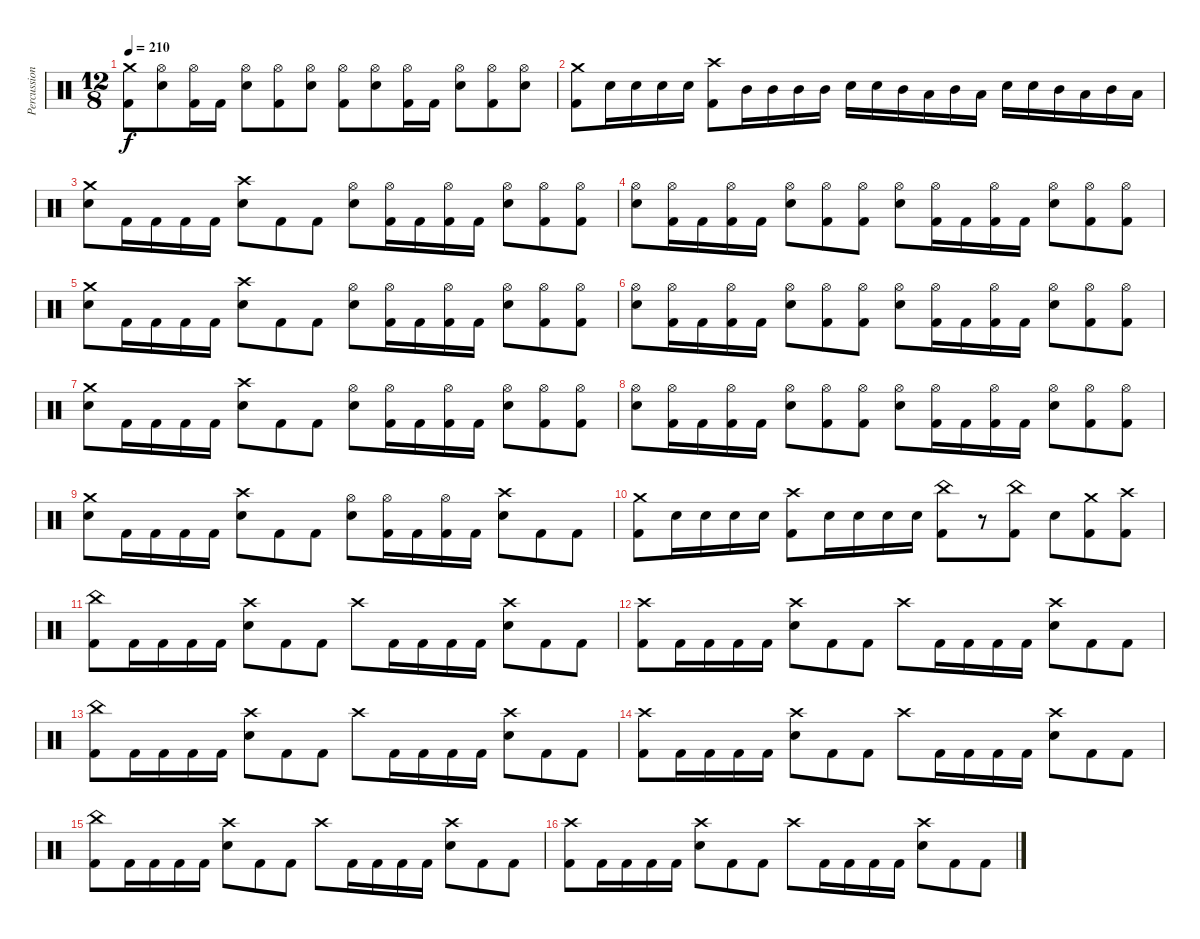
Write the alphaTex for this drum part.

\track ("Percussion" "Percussion") {instrument percussion}
\staff {score}
\articulation defaults
\ts (12 8)
\tempo 210
\clef neutral
\ks c
("Crash medium (hit)" "Kick (hit) 2").8{dy f} ("Hi-Hat (open)" "Electric Snare (hit)").8 ("Hi-Hat (open)" "Kick (hit) 2").16 "Kick (hit) 2".16 ("Hi-Hat (open)" "Electric Snare (hit)").8 ("Hi-Hat (open)" "Kick (hit) 2").8 ("Hi-Hat (open)" "Electric Snare (hit)").8 ("Hi-Hat (open)" "Kick (hit) 2").8 ("Hi-Hat (open)" "Electric Snare (hit)").8 ("Hi-Hat (open)" "Kick (hit) 2").16 "Kick (hit) 2".16 ("Hi-Hat (open)" "Electric Snare (hit)").8 ("Hi-Hat (open)" "Kick (hit) 2").8 ("Hi-Hat (open)" "Electric Snare (hit)").8 |
("Crash medium (hit)" "Kick (hit) 2").8 "Electric Snare (hit)".16 "Electric Snare (hit)".16 "Electric Snare (hit)".16 "Electric Snare (hit)".16 ("Crash high (hit)" "Kick (hit) 2").8 "Mid Tom (hit)".16 "Mid Tom (hit)".16 "Mid Tom (hit)".16 "Mid Tom (hit)".16 "Electric Snare (hit)".16 "Electric Snare (hit)".16 "Mid Tom (hit)".16 "Low Tom (hit)".16 "Mid Tom (hit)".16 "Low Tom (hit)".16 "Electric Snare (hit)".16 "Electric Snare (hit)".16 "Mid Tom (hit)".16 "Low Tom (hit)".16 "Mid Tom (hit)".16 "Low Tom (hit)".16 |
("Crash medium (hit)" "Electric Snare (hit)").8 "Kick (hit) 2".16 "Kick (hit) 2".16 "Kick (hit) 2".16 "Kick (hit) 2".16 ("Crash high (hit)" "Electric Snare (hit)").8 "Kick (hit) 2".8 "Kick (hit) 2".8 ("Hi-Hat (open)" "Electric Snare (hit)").8 ("Hi-Hat (open)" "Kick (hit) 2").16 "Kick (hit) 2".16 ("Hi-Hat (open)" "Kick (hit) 2").16 "Kick (hit) 2".16 ("Hi-Hat (open)" "Electric Snare (hit)").8 ("Hi-Hat (open)" "Kick (hit) 2").8 ("Hi-Hat (open)" "Kick (hit) 2").8 |
("Hi-Hat (open)" "Electric Snare (hit)").8 ("Hi-Hat (open)" "Kick (hit) 2").16 "Kick (hit) 2".16 ("Hi-Hat (open)" "Kick (hit) 2").16 "Kick (hit) 2".16 ("Hi-Hat (open)" "Electric Snare (hit)").8 ("Hi-Hat (open)" "Kick (hit) 2").8 ("Hi-Hat (open)" "Kick (hit) 2").8 ("Hi-Hat (open)" "Electric Snare (hit)").8 ("Hi-Hat (open)" "Kick (hit) 2").16 "Kick (hit) 2".16 ("Hi-Hat (open)" "Kick (hit) 2").16 "Kick (hit) 2".16 ("Hi-Hat (open)" "Electric Snare (hit)").8 ("Hi-Hat (open)" "Kick (hit) 2").8 ("Hi-Hat (open)" "Kick (hit) 2").8 |
("Crash medium (hit)" "Electric Snare (hit)").8 "Kick (hit) 2".16 "Kick (hit) 2".16 "Kick (hit) 2".16 "Kick (hit) 2".16 ("Crash high (hit)" "Electric Snare (hit)").8 "Kick (hit) 2".8 "Kick (hit) 2".8 ("Hi-Hat (open)" "Electric Snare (hit)").8 ("Hi-Hat (open)" "Kick (hit) 2").16 "Kick (hit) 2".16 ("Hi-Hat (open)" "Kick (hit) 2").16 "Kick (hit) 2".16 ("Hi-Hat (open)" "Electric Snare (hit)").8 ("Hi-Hat (open)" "Kick (hit) 2").8 ("Hi-Hat (open)" "Kick (hit) 2").8 |
("Hi-Hat (open)" "Electric Snare (hit)").8 ("Hi-Hat (open)" "Kick (hit) 2").16 "Kick (hit) 2".16 ("Hi-Hat (open)" "Kick (hit) 2").16 "Kick (hit) 2".16 ("Hi-Hat (open)" "Electric Snare (hit)").8 ("Hi-Hat (open)" "Kick (hit) 2").8 ("Hi-Hat (open)" "Kick (hit) 2").8 ("Hi-Hat (open)" "Electric Snare (hit)").8 ("Hi-Hat (open)" "Kick (hit) 2").16 "Kick (hit) 2".16 ("Hi-Hat (open)" "Kick (hit) 2").16 "Kick (hit) 2".16 ("Hi-Hat (open)" "Electric Snare (hit)").8 ("Hi-Hat (open)" "Kick (hit) 2").8 ("Hi-Hat (open)" "Kick (hit) 2").8 |
("Crash medium (hit)" "Electric Snare (hit)").8 "Kick (hit) 2".16 "Kick (hit) 2".16 "Kick (hit) 2".16 "Kick (hit) 2".16 ("Crash high (hit)" "Electric Snare (hit)").8 "Kick (hit) 2".8 "Kick (hit) 2".8 ("Hi-Hat (open)" "Electric Snare (hit)").8 ("Hi-Hat (open)" "Kick (hit) 2").16 "Kick (hit) 2".16 ("Hi-Hat (open)" "Kick (hit) 2").16 "Kick (hit) 2".16 ("Hi-Hat (open)" "Electric Snare (hit)").8 ("Hi-Hat (open)" "Kick (hit) 2").8 ("Hi-Hat (open)" "Kick (hit) 2").8 |
("Hi-Hat (open)" "Electric Snare (hit)").8 ("Hi-Hat (open)" "Kick (hit) 2").16 "Kick (hit) 2".16 ("Hi-Hat (open)" "Kick (hit) 2").16 "Kick (hit) 2".16 ("Hi-Hat (open)" "Electric Snare (hit)").8 ("Hi-Hat (open)" "Kick (hit) 2").8 ("Hi-Hat (open)" "Kick (hit) 2").8 ("Hi-Hat (open)" "Electric Snare (hit)").8 ("Hi-Hat (open)" "Kick (hit) 2").16 "Kick (hit) 2".16 ("Hi-Hat (open)" "Kick (hit) 2").16 "Kick (hit) 2".16 ("Hi-Hat (open)" "Electric Snare (hit)").8 ("Hi-Hat (open)" "Kick (hit) 2").8 ("Hi-Hat (open)" "Kick (hit) 2").8 |
("Crash medium (hit)" "Electric Snare (hit)").8 "Kick (hit) 2".16 "Kick (hit) 2".16 "Kick (hit) 2".16 "Kick (hit) 2".16 ("Crash high (hit)" "Electric Snare (hit)").8 "Kick (hit) 2".8 "Kick (hit) 2".8 ("Hi-Hat (open)" "Electric Snare (hit)").8 ("Hi-Hat (open)" "Kick (hit) 2").16 "Kick (hit) 2".16 ("Hi-Hat (open)" "Kick (hit) 2").16 "Kick (hit) 2".16 ("Crash high (hit)" "Electric Snare (hit)").8 "Kick (hit) 2".8 "Kick (hit) 2".8 |
("Crash medium (hit)" "Kick (hit) 2").8 "Electric Snare (hit)".16 "Electric Snare (hit)".16 "Electric Snare (hit)".16 "Electric Snare (hit)".16 ("Crash high (hit)" "Kick (hit) 2").8 "Electric Snare (hit)".16 "Electric Snare (hit)".16 "Electric Snare (hit)".16 "Electric Snare (hit)".16 ("China (hit)" "Kick (hit) 2").8 r.8 ("China (hit)" "Kick (hit) 2").8 "Electric Snare (hit)".8 ("Crash medium (hit)" "Kick (hit) 2").8 ("Crash high (hit)" "Kick (hit) 2").8 |
("China (hit)" "Kick (hit) 2").8 "Kick (hit) 2".16 "Kick (hit) 2".16 "Kick (hit) 2".16 "Kick (hit) 2".16 ("Crash high (hit)" "Electric Snare (hit)").8 "Kick (hit) 2".8 "Kick (hit) 2".8 "Crash high (hit)".8 "Kick (hit) 2".16 "Kick (hit) 2".16 "Kick (hit) 2".16 "Kick (hit) 2".16 ("Crash high (hit)" "Electric Snare (hit)").8 "Kick (hit) 2".8 "Kick (hit) 2".8 |
("Crash high (hit)" "Kick (hit) 2").8 "Kick (hit) 2".16 "Kick (hit) 2".16 "Kick (hit) 2".16 "Kick (hit) 2".16 ("Crash high (hit)" "Electric Snare (hit)").8 "Kick (hit) 2".8 "Kick (hit) 2".8 "Crash high (hit)".8 "Kick (hit) 2".16 "Kick (hit) 2".16 "Kick (hit) 2".16 "Kick (hit) 2".16 ("Crash high (hit)" "Electric Snare (hit)").8 "Kick (hit) 2".8 "Kick (hit) 2".8 |
("China (hit)" "Kick (hit) 2").8 "Kick (hit) 2".16 "Kick (hit) 2".16 "Kick (hit) 2".16 "Kick (hit) 2".16 ("Crash high (hit)" "Electric Snare (hit)").8 "Kick (hit) 2".8 "Kick (hit) 2".8 "Crash high (hit)".8 "Kick (hit) 2".16 "Kick (hit) 2".16 "Kick (hit) 2".16 "Kick (hit) 2".16 ("Crash high (hit)" "Electric Snare (hit)").8 "Kick (hit) 2".8 "Kick (hit) 2".8 |
("Crash high (hit)" "Kick (hit) 2").8 "Kick (hit) 2".16 "Kick (hit) 2".16 "Kick (hit) 2".16 "Kick (hit) 2".16 ("Crash high (hit)" "Electric Snare (hit)").8 "Kick (hit) 2".8 "Kick (hit) 2".8 "Crash high (hit)".8 "Kick (hit) 2".16 "Kick (hit) 2".16 "Kick (hit) 2".16 "Kick (hit) 2".16 ("Crash high (hit)" "Electric Snare (hit)").8 "Kick (hit) 2".8 "Kick (hit) 2".8 |
("China (hit)" "Kick (hit) 2").8 "Kick (hit) 2".16 "Kick (hit) 2".16 "Kick (hit) 2".16 "Kick (hit) 2".16 ("Crash high (hit)" "Electric Snare (hit)").8 "Kick (hit) 2".8 "Kick (hit) 2".8 "Crash high (hit)".8 "Kick (hit) 2".16 "Kick (hit) 2".16 "Kick (hit) 2".16 "Kick (hit) 2".16 ("Crash high (hit)" "Electric Snare (hit)").8 "Kick (hit) 2".8 "Kick (hit) 2".8 |
("Crash high (hit)" "Kick (hit) 2").8 "Kick (hit) 2".16 "Kick (hit) 2".16 "Kick (hit) 2".16 "Kick (hit) 2".16 ("Crash high (hit)" "Electric Snare (hit)").8 "Kick (hit) 2".8 "Kick (hit) 2".8 "Crash high (hit)".8 "Kick (hit) 2".16 "Kick (hit) 2".16 "Kick (hit) 2".16 "Kick (hit) 2".16 ("Crash high (hit)" "Electric Snare (hit)").8 "Kick (hit) 2".8 "Kick (hit) 2".8
